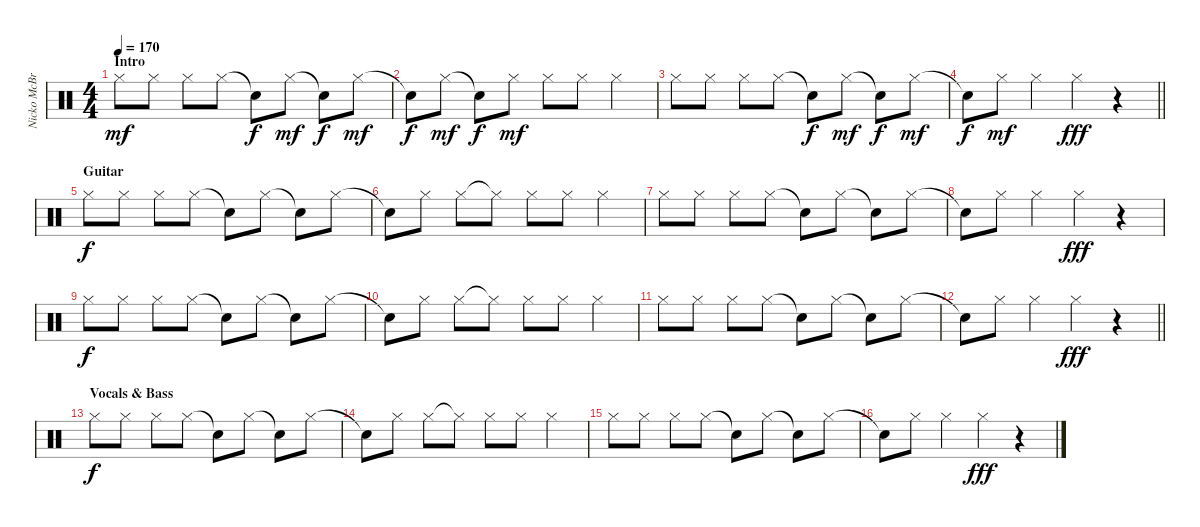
\track ("Nicko McBrian" "Nicko McBr") {instrument percussion}
\staff {score}
\articulation defaults
\ts (4 4)
\section ("" "Intro")
\tempo 170
\clef neutral
\ks c "Hi-Hat (closed)".8{dy mf} "Hi-Hat (closed)".8 "Hi-Hat (closed)".8 "Hi-Hat (closed)".8 "Snare (hit)"{t}.8{dy f} "Hi-Hat (closed)".8{dy mf} "Snare (hit)"{t}.8{dy f} "Hi-Hat (closed)".8{dy mf}
|
"Snare (hit)"{t}.8{dy f} "Hi-Hat (closed)".8{dy mf} "Snare (hit)"{t}.8{dy f} "Hi-Hat (closed)".8{dy mf} "Hi-Hat (closed)".8 "Hi-Hat (closed)".8 "Hi-Hat (closed)".4 |
"Hi-Hat (closed)".8 "Hi-Hat (closed)".8 "Hi-Hat (closed)".8 "Hi-Hat (closed)".8 "Snare (hit)"{t}.8{dy f} "Hi-Hat (closed)".8{dy mf} "Snare (hit)"{t}.8{dy f} "Hi-Hat (closed)".8{dy mf} |
\barLineRight lightlight "Snare (hit)"{t}.8{dy f} "Hi-Hat (closed)".8{dy mf} "Hi-Hat (closed)".4 "Hi-Hat (closed)".4{dy fff}
r.4 |
\section ("" "Guitar")
"Hi-Hat (closed)".8{dy f} "Hi-Hat (closed)".8 "Hi-Hat (closed)".8 "Hi-Hat (closed)".8 "Snare (hit)"{t}.8 "Hi-Hat (closed)".8 "Snare (hit)"{t}.8 "Hi-Hat (closed)".8 |
"Snare (hit)"{t}.8 "Hi-Hat (closed)".8 "Hi-Hat (closed)".8 "Hi-Hat (closed)"{t}.8 "Hi-Hat (closed)".8 "Hi-Hat (closed)".8 "Hi-Hat (closed)".4 |
"Hi-Hat (closed)".8 "Hi-Hat (closed)".8 "Hi-Hat (closed)".8 "Hi-Hat (closed)".8 "Snare (hit)"{t}.8 "Hi-Hat (closed)".8 "Snare (hit)"{t}.8 "Hi-Hat (closed)".8 |
"Snare (hit)"{t}.8 "Hi-Hat (closed)".8 "Hi-Hat (closed)".4 "Hi-Hat (closed)".4{dy fff} r.4 |
"Hi-Hat (closed)".8{dy f} "Hi-Hat (closed)".8 "Hi-Hat (closed)".8 "Hi-Hat (closed)".8 "Snare (hit)"{t}.8 "Hi-Hat (closed)".8 "Snare (hit)"{t}.8 "Hi-Hat (closed)".8 |
"Snare (hit)"{t}.8 "Hi-Hat (closed)".8 "Hi-Hat (closed)".8 "Hi-Hat (closed)"{t}.8 "Hi-Hat (closed)".8 "Hi-Hat (closed)".8 "Hi-Hat (closed)".4 |
"Hi-Hat (closed)".8 "Hi-Hat (closed)".8 "Hi-Hat (closed)".8 "Hi-Hat (closed)".8 "Snare (hit)"{t}.8 "Hi-Hat (closed)".8 "Snare (hit)"{t}.8 "Hi-Hat (closed)".8 |
\barLineRight lightlight "Snare (hit)"{t}.8 "Hi-Hat (closed)".8 "Hi-Hat (closed)".4 "Hi-Hat (closed)".4{dy fff}
r.4 |
\section ("" "Vocals & Bass")
"Hi-Hat (closed)".8{dy f} "Hi-Hat (closed)".8 "Hi-Hat (closed)".8 "Hi-Hat (closed)".8 "Snare (hit)"{t}.8 "Hi-Hat (closed)".8 "Snare (hit)"{t}.8 "Hi-Hat (closed)".8 |
"Snare (hit)"{t}.8 "Hi-Hat (closed)".8 "Hi-Hat (closed)".8 "Hi-Hat (closed)"{t}.8 "Hi-Hat (closed)".8 "Hi-Hat (closed)".8 "Hi-Hat (closed)".4 |
"Hi-Hat (closed)".8 "Hi-Hat (closed)".8 "Hi-Hat (closed)".8 "Hi-Hat (closed)".8 "Snare (hit)"{t}.8 "Hi-Hat (closed)".8 "Snare (hit)"{t}.8 "Hi-Hat (closed)".8 |
"Snare (hit)"{t}.8 "Hi-Hat (closed)".8 "Hi-Hat (closed)".4 "Hi-Hat (closed)".4{dy fff} r.4
